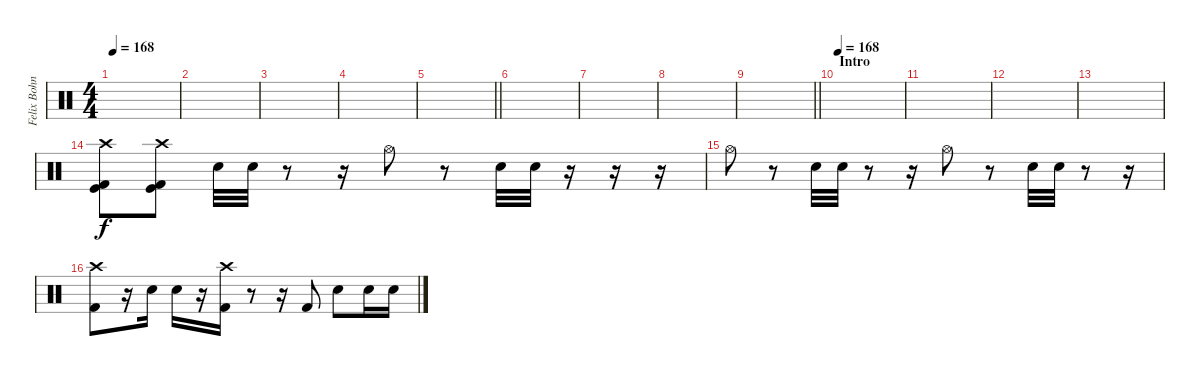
\track ("Felix Bohnke" "Felix Bohn") {instrument percussion}
\staff {score}
\articulation defaults
\ts (4 4)
\tempo 168
\tempo 170
\tempo 168
\clef neutral
\ks c
|
|
|
|
\barLineRight lightlight
|
|
|
|
\barLineRight lightlight
|
\section ("" "Intro")
\tempo 168
|
|
|
|
("Crash high (hit)" "Kick (hit)" "Kick (hit) 2").8 ("Crash high (hit)" "Kick (hit)" "Kick (hit) 2").8 "Electric Snare (hit)".32 "Electric Snare (hit)".32 r.8 r.16 "Hi-Hat (open)".8 r.8 "Electric Snare (hit)".32 "Electric Snare (hit)".32 r.16 r.16 r.16 |
"Hi-Hat (open)".8 r.8 "Electric Snare (hit)".32 "Electric Snare (hit)".32 r.8 r.16 "Hi-Hat (open)".8 r.8 "Electric Snare (hit)".32 "Electric Snare (hit)".32 r.8 r.16 |
("Crash high (hit)" "Kick (hit) 2").8 r.16 "Electric Snare (hit)".16 "Electric Snare (hit)".16 r.16 ("Crash high (hit)" "Kick (hit) 2").16 r.8 r.16 "Kick (hit) 2".8 "Electric Snare (hit)".8 "Electric Snare (hit)".16 "Electric Snare (hit)".16
